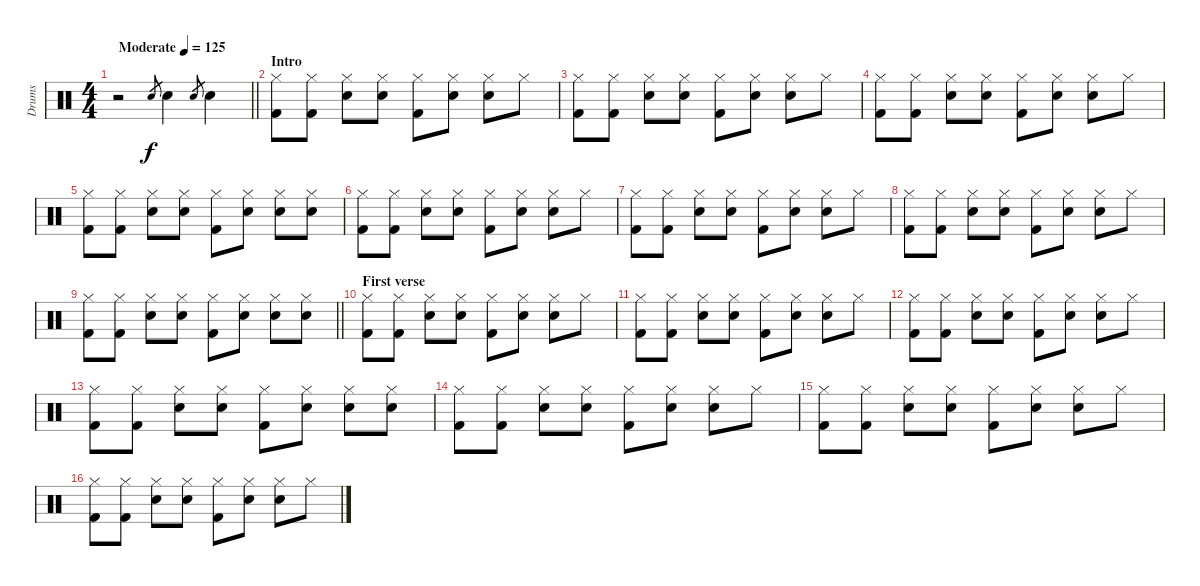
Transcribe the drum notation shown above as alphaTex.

\track ("Drums" "Drums") {instrument percussion}
\staff {score}
\articulation defaults
\ts (4 4)
\tempo (125 "Moderate")
\clef neutral
\barLineRight lightlight
\ks c
r.2{dy f} "Electric Snare (hit)".8{gr} "Electric Snare (hit)".4 "Electric Snare (hit)".8{gr} "Electric Snare (hit)".4 |
\section ("" "Intro")
("Hi-Hat (closed)" "Kick (hit) 2").8 ("Hi-Hat (closed)" "Kick (hit) 2").8 ("Hi-Hat (closed)" "Electric Snare (hit)").8 ("Hi-Hat (closed)" "Electric Snare (hit)").8 ("Hi-Hat (closed)" "Kick (hit) 2").8 ("Hi-Hat (closed)" "Electric Snare (hit)").8 ("Hi-Hat (closed)" "Electric Snare (hit)").8 "Hi-Hat (closed)".8 |
("Hi-Hat (closed)" "Kick (hit) 2").8 ("Hi-Hat (closed)" "Kick (hit) 2").8 ("Hi-Hat (closed)" "Electric Snare (hit)").8 ("Hi-Hat (closed)" "Electric Snare (hit)").8 ("Hi-Hat (closed)" "Kick (hit) 2").8 ("Hi-Hat (closed)" "Electric Snare (hit)").8 ("Hi-Hat (closed)" "Electric Snare (hit)").8 "Hi-Hat (closed)".8 |
("Hi-Hat (closed)" "Kick (hit) 2").8 ("Hi-Hat (closed)" "Kick (hit) 2").8 ("Hi-Hat (closed)" "Electric Snare (hit)").8 ("Hi-Hat (closed)" "Electric Snare (hit)").8 ("Hi-Hat (closed)" "Kick (hit) 2").8 ("Hi-Hat (closed)" "Electric Snare (hit)").8 ("Hi-Hat (closed)" "Electric Snare (hit)").8 "Hi-Hat (closed)".8 |
("Hi-Hat (closed)" "Kick (hit) 2").8 ("Hi-Hat (closed)" "Kick (hit) 2").8 ("Hi-Hat (closed)" "Electric Snare (hit)").8 ("Hi-Hat (closed)" "Electric Snare (hit)").8 ("Hi-Hat (closed)" "Kick (hit) 2").8 ("Hi-Hat (closed)" "Electric Snare (hit)").8 ("Hi-Hat (closed)" "Electric Snare (hit)").8 ("Hi-Hat (closed)" "Electric Snare (hit)").8 |
("Hi-Hat (closed)" "Kick (hit) 2").8 ("Hi-Hat (closed)" "Kick (hit) 2").8 ("Hi-Hat (closed)" "Electric Snare (hit)").8 ("Hi-Hat (closed)" "Electric Snare (hit)").8 ("Hi-Hat (closed)" "Kick (hit) 2").8 ("Hi-Hat (closed)" "Electric Snare (hit)").8 ("Hi-Hat (closed)" "Electric Snare (hit)").8 "Hi-Hat (closed)".8 |
("Hi-Hat (closed)" "Kick (hit) 2").8 ("Hi-Hat (closed)" "Kick (hit) 2").8 ("Hi-Hat (closed)" "Electric Snare (hit)").8 ("Hi-Hat (closed)" "Electric Snare (hit)").8 ("Hi-Hat (closed)" "Kick (hit) 2").8 ("Hi-Hat (closed)" "Electric Snare (hit)").8 ("Hi-Hat (closed)" "Electric Snare (hit)").8 "Hi-Hat (closed)".8 |
("Hi-Hat (closed)" "Kick (hit) 2").8 ("Hi-Hat (closed)" "Kick (hit) 2").8 ("Hi-Hat (closed)" "Electric Snare (hit)").8 ("Hi-Hat (closed)" "Electric Snare (hit)").8 ("Hi-Hat (closed)" "Kick (hit) 2").8 ("Hi-Hat (closed)" "Electric Snare (hit)").8 ("Hi-Hat (closed)" "Electric Snare (hit)").8 "Hi-Hat (closed)".8 |
\barLineRight lightlight
("Hi-Hat (closed)" "Kick (hit) 2").8 ("Hi-Hat (closed)" "Kick (hit) 2").8 ("Hi-Hat (closed)" "Electric Snare (hit)").8 ("Hi-Hat (closed)" "Electric Snare (hit)").8 ("Hi-Hat (closed)" "Kick (hit) 2").8 ("Hi-Hat (closed)" "Electric Snare (hit)").8 ("Hi-Hat (closed)" "Electric Snare (hit)").8 ("Hi-Hat (closed)" "Electric Snare (hit)").8 |
\section ("" "First verse")
("Hi-Hat (closed)" "Kick (hit) 2").8 ("Hi-Hat (closed)" "Kick (hit) 2").8 ("Hi-Hat (closed)" "Electric Snare (hit)").8 ("Hi-Hat (closed)" "Electric Snare (hit)").8 ("Hi-Hat (closed)" "Kick (hit) 2").8 ("Hi-Hat (closed)" "Electric Snare (hit)").8 ("Hi-Hat (closed)" "Electric Snare (hit)").8 "Hi-Hat (closed)".8 |
("Hi-Hat (closed)" "Kick (hit) 2").8 ("Hi-Hat (closed)" "Kick (hit) 2").8 ("Hi-Hat (closed)" "Electric Snare (hit)").8 ("Hi-Hat (closed)" "Electric Snare (hit)").8 ("Hi-Hat (closed)" "Kick (hit) 2").8 ("Hi-Hat (closed)" "Electric Snare (hit)").8 ("Hi-Hat (closed)" "Electric Snare (hit)").8 "Hi-Hat (closed)".8 |
("Hi-Hat (closed)" "Kick (hit) 2").8 ("Hi-Hat (closed)" "Kick (hit) 2").8 ("Hi-Hat (closed)" "Electric Snare (hit)").8 ("Hi-Hat (closed)" "Electric Snare (hit)").8 ("Hi-Hat (closed)" "Kick (hit) 2").8 ("Hi-Hat (closed)" "Electric Snare (hit)").8 ("Hi-Hat (closed)" "Electric Snare (hit)").8 "Hi-Hat (closed)".8 |
("Hi-Hat (closed)" "Kick (hit) 2").8 ("Hi-Hat (closed)" "Kick (hit) 2").8 ("Hi-Hat (closed)" "Electric Snare (hit)").8 ("Hi-Hat (closed)" "Electric Snare (hit)").8 ("Hi-Hat (closed)" "Kick (hit) 2").8 ("Hi-Hat (closed)" "Electric Snare (hit)").8 ("Hi-Hat (closed)" "Electric Snare (hit)").8 ("Hi-Hat (closed)" "Electric Snare (hit)").8 |
("Hi-Hat (closed)" "Kick (hit) 2").8 ("Hi-Hat (closed)" "Kick (hit) 2").8 ("Hi-Hat (closed)" "Electric Snare (hit)").8 ("Hi-Hat (closed)" "Electric Snare (hit)").8 ("Hi-Hat (closed)" "Kick (hit) 2").8 ("Hi-Hat (closed)" "Electric Snare (hit)").8 ("Hi-Hat (closed)" "Electric Snare (hit)").8 "Hi-Hat (closed)".8 |
("Hi-Hat (closed)" "Kick (hit) 2").8 ("Hi-Hat (closed)" "Kick (hit) 2").8 ("Hi-Hat (closed)" "Electric Snare (hit)").8 ("Hi-Hat (closed)" "Electric Snare (hit)").8 ("Hi-Hat (closed)" "Kick (hit) 2").8 ("Hi-Hat (closed)" "Electric Snare (hit)").8 ("Hi-Hat (closed)" "Electric Snare (hit)").8 "Hi-Hat (closed)".8 |
("Hi-Hat (closed)" "Kick (hit) 2").8 ("Hi-Hat (closed)" "Kick (hit) 2").8 ("Hi-Hat (closed)" "Electric Snare (hit)").8 ("Hi-Hat (closed)" "Electric Snare (hit)").8 ("Hi-Hat (closed)" "Kick (hit) 2").8 ("Hi-Hat (closed)" "Electric Snare (hit)").8 ("Hi-Hat (closed)" "Electric Snare (hit)").8 "Hi-Hat (closed)".8
